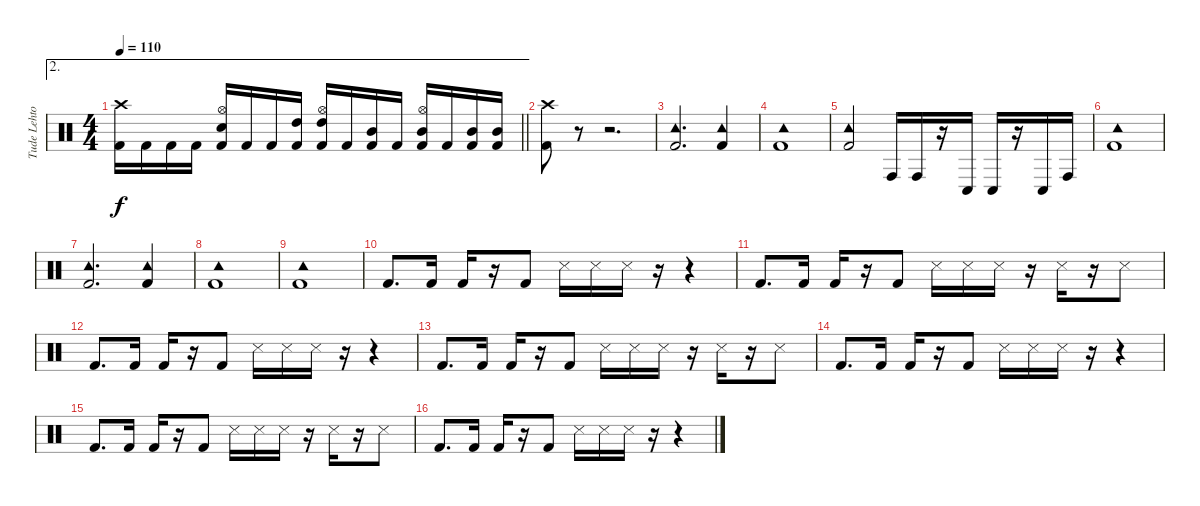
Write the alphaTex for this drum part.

\track ("Tude Lehtonen" "Tude Lehto") {instrument percussion}
\staff {score}
\articulation defaults
\ae 2
\ts (4 4)
\tempo 110
\clef neutral
\barLineRight lightlight
\ks c
("Crash high (hit)" "Kick (hit) 2").16{dy f} "Kick (hit) 2".16 "Kick (hit) 2".16 "Kick (hit) 2".16 ("Hi-Hat (open)" "Snare (hit) 2" "Kick (hit) 2").16 "Kick (hit) 2".16 "Kick (hit) 2".16 ("High Tom (hit)" "Kick (hit) 2").16 ("Hi-Hat (open)" "High Tom (hit)" "Kick (hit) 2").16 "Kick (hit) 2".16 ("Mid Tom (hit)" "Kick (hit) 2").16 "Kick (hit) 2".16 ("Hi-Hat (open)" "Mid Tom (hit)" "Kick (hit) 2").16 "Kick (hit) 2".16 ("Mid Tom (hit)" "Kick (hit) 2").16 ("Mid Tom (hit)" "Kick (hit) 2").16 |
\section ("" "")
("Crash high (hit)" "Kick (hit) 2").8 r.8 r.2{d} |
("Tambourine (hit)" "Kick (hit) 2").2{d volume 6} ("Tambourine (hit)" "Kick (hit) 2").4 |
("Tambourine (hit)" "Kick (hit) 2").1 |
("Tambourine (hit)" "Kick (hit) 2").2 "Conga high (hit)".16 "Conga high (hit)".16 r.16 "Conga low (hit)".16 "Conga low (hit)".16 r.16 "Conga low (hit)".16 "Conga high (hit)".16 |
("Tambourine (hit)" "Kick (hit) 2").1 |
("Tambourine (hit)" "Kick (hit) 2").2{d} ("Tambourine (hit)" "Kick (hit) 2").4 |
("Tambourine (hit)" "Kick (hit) 2").1 |
("Tambourine (hit)" "Kick (hit) 2").1 |
"Kick (hit) 2".8{d} "Kick (hit) 2".16 "Kick (hit) 2".16 r.16 "Kick (hit) 2".8 "Metronome (hit)".16 "Metronome (hit)".16 "Metronome (hit)".16 r.16 r.4 |
"Kick (hit) 2".8{d} "Kick (hit) 2".16 "Kick (hit) 2".16 r.16 "Kick (hit) 2".8 "Metronome (hit)".16 "Metronome (hit)".16 "Metronome (hit)".16 r.16 "Metronome (hit)".16 r.16 "Metronome (hit)".8 |
"Kick (hit) 2".8{d} "Kick (hit) 2".16 "Kick (hit) 2".16 r.16 "Kick (hit) 2".8 "Metronome (hit)".16 "Metronome (hit)".16 "Metronome (hit)".16 r.16 r.4 |
"Kick (hit) 2".8{d} "Kick (hit) 2".16 "Kick (hit) 2".16 r.16 "Kick (hit) 2".8 "Metronome (hit)".16 "Metronome (hit)".16 "Metronome (hit)".16 r.16 "Metronome (hit)".16 r.16 "Metronome (hit)".8 |
"Kick (hit) 2".8{d} "Kick (hit) 2".16 "Kick (hit) 2".16 r.16 "Kick (hit) 2".8 "Metronome (hit)".16 "Metronome (hit)".16 "Metronome (hit)".16 r.16 r.4 |
"Kick (hit) 2".8{d} "Kick (hit) 2".16 "Kick (hit) 2".16 r.16 "Kick (hit) 2".8 "Metronome (hit)".16 "Metronome (hit)".16 "Metronome (hit)".16 r.16 "Metronome (hit)".16 r.16 "Metronome (hit)".8 |
"Kick (hit) 2".8{d} "Kick (hit) 2".16 "Kick (hit) 2".16 r.16 "Kick (hit) 2".8 "Metronome (hit)".16 "Metronome (hit)".16 "Metronome (hit)".16 r.16 r.4
